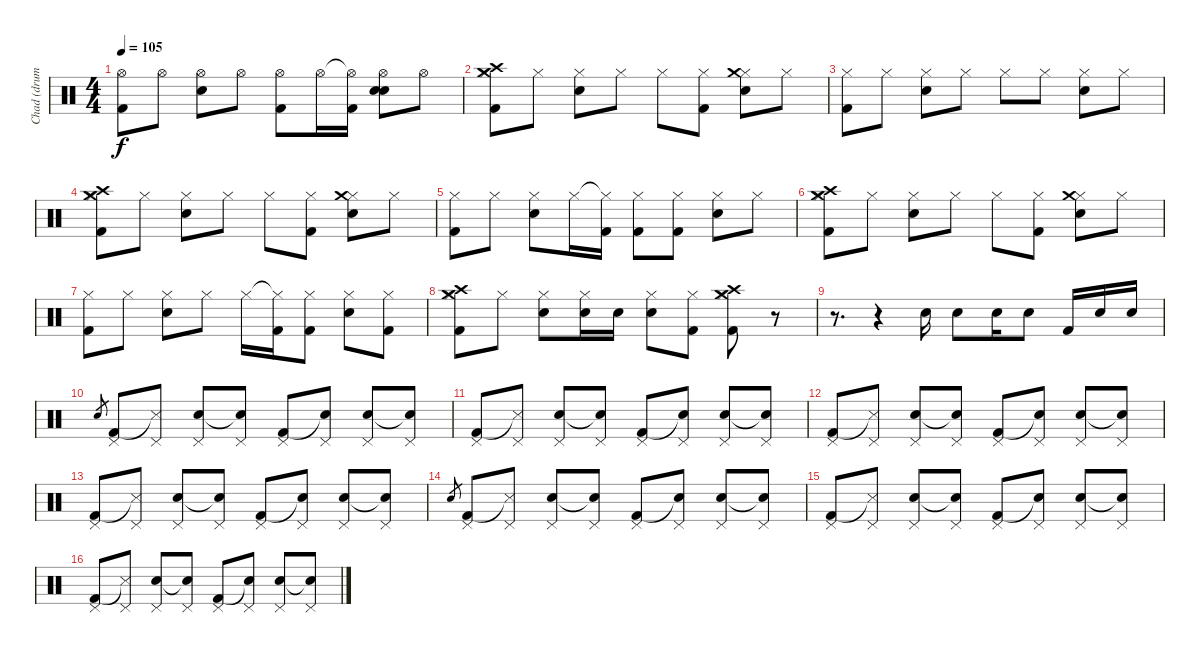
\track ("Chad (drums)" "Chad (drum") {instrument percussion}
\staff {score}
\articulation defaults
\ts (4 4)
\tempo 105
\clef neutral
\ks c
("Hi-Hat (open)" "Kick (hit) 2").8{dy f} "Hi-Hat (open)".8 ("Hi-Hat (open)" "Electric Snare (hit)").8 "Hi-Hat (open)".8 ("Hi-Hat (open)" "Kick (hit) 2").8 "Hi-Hat (open)".16 ("Hi-Hat (open)"{t} "Kick (hit) 2").16 ("Hi-Hat (open)" "Electric Snare (hit)" "Electric Snare (hit)").8{bd 60} "Hi-Hat (open)".8 |
("Hi-Hat (closed)" "Kick (hit) 2" "Crash high (hit)" "Crash medium (hit)").8 "Hi-Hat (closed)".8 ("Hi-Hat (closed)" "Electric Snare (hit)").8 "Hi-Hat (closed)".8 "Hi-Hat (closed)".8 ("Hi-Hat (closed)" "Kick (hit) 2").8 ("Hi-Hat (closed)" "Electric Snare (hit)" "Crash medium (hit)").8 "Hi-Hat (closed)".8 |
("Hi-Hat (closed)" "Kick (hit) 2").8 "Hi-Hat (closed)".8 ("Hi-Hat (closed)" "Electric Snare (hit)").8 "Hi-Hat (closed)".8 "Hi-Hat (closed)".8 "Hi-Hat (closed)".8 ("Hi-Hat (closed)" "Electric Snare (hit)").8 "Hi-Hat (closed)".8 |
("Hi-Hat (closed)" "Kick (hit) 2" "Crash high (hit)" "Crash medium (hit)").8 "Hi-Hat (closed)".8 ("Hi-Hat (closed)" "Electric Snare (hit)").8 "Hi-Hat (closed)".8 "Hi-Hat (closed)".8 ("Hi-Hat (closed)" "Kick (hit) 2").8 ("Hi-Hat (closed)" "Electric Snare (hit)" "Crash medium (hit)").8 "Hi-Hat (closed)".8 |
("Hi-Hat (closed)" "Kick (hit) 2").8 "Hi-Hat (closed)".8 ("Hi-Hat (closed)" "Electric Snare (hit)").8 "Hi-Hat (closed)".16 ("Hi-Hat (closed)"{t} "Kick (hit) 2").16 ("Hi-Hat (closed)" "Kick (hit) 2").8 ("Hi-Hat (closed)" "Kick (hit) 2").8 ("Hi-Hat (closed)" "Electric Snare (hit)").8 "Hi-Hat (closed)".8 |
("Hi-Hat (closed)" "Kick (hit) 2" "Crash high (hit)" "Crash medium (hit)").8 "Hi-Hat (closed)".8 ("Hi-Hat (closed)" "Electric Snare (hit)").8 "Hi-Hat (closed)".8 "Hi-Hat (closed)".8 ("Hi-Hat (closed)" "Kick (hit) 2").8 ("Hi-Hat (closed)" "Electric Snare (hit)" "Crash medium (hit)").8 "Hi-Hat (closed)".8 |
("Hi-Hat (closed)" "Kick (hit) 2").8 "Hi-Hat (closed)".8 ("Hi-Hat (closed)" "Electric Snare (hit)").8 "Hi-Hat (closed)".8 "Hi-Hat (closed)".16 ("Hi-Hat (closed)"{t} "Kick (hit) 2").16 ("Hi-Hat (closed)" "Kick (hit) 2").8 ("Hi-Hat (closed)" "Electric Snare (hit)").8 ("Hi-Hat (closed)" "Kick (hit) 2").8 |
("Hi-Hat (closed)" "Kick (hit) 2" "Crash high (hit)" "Crash medium (hit)").8 "Hi-Hat (closed)".8 ("Hi-Hat (closed)" "Electric Snare (hit)").8 ("Hi-Hat (closed)" "Electric Snare (hit)").16 "Electric Snare (hit)".16 ("Hi-Hat (closed)" "Electric Snare (hit)").8 ("Hi-Hat (closed)" "Kick (hit) 2").8 ("Hi-Hat (closed)" "Kick (hit) 2" "Crash medium (hit)" "Crash high (hit)").8 r.8 |
r.8{d} r.4 "Electric Snare (hit)".16 "Electric Snare (hit)".8 "Electric Snare (hit)".16 "Electric Snare (hit)".8 "Kick (hit) 2".16 "Electric Snare (hit)".16 "Electric Snare (hit)".16 |
"Electric Snare (hit)".8{gr} ("Pedal Hi-Hat (hit)" "Kick (hit) 2").8 ("Pedal Hi-Hat (hit)" "Snare (side stick) 3"{t}).8 ("Pedal Hi-Hat (hit)" "Electric Snare (hit)").8 ("Pedal Hi-Hat (hit)" "Snare (hit)"{t}).8 ("Pedal Hi-Hat (hit)" "Kick (hit) 2").8 ("Pedal Hi-Hat (hit)" "Snare (hit)"{t}).8 ("Pedal Hi-Hat (hit)" "Electric Snare (hit)").8 ("Pedal Hi-Hat (hit)" "Snare (hit)"{t}).8 |
("Pedal Hi-Hat (hit)" "Kick (hit) 2").8 ("Pedal Hi-Hat (hit)" "Snare (side stick) 3"{t}).8 ("Pedal Hi-Hat (hit)" "Electric Snare (hit)").8 ("Pedal Hi-Hat (hit)" "Snare (hit)"{t}).8 ("Pedal Hi-Hat (hit)" "Kick (hit) 2").8 ("Pedal Hi-Hat (hit)" "Snare (hit)"{t}).8 ("Pedal Hi-Hat (hit)" "Electric Snare (hit)").8 ("Pedal Hi-Hat (hit)" "Snare (hit)"{t}).8 |
("Pedal Hi-Hat (hit)" "Kick (hit) 2").8 ("Pedal Hi-Hat (hit)" "Snare (side stick) 3"{t}).8 ("Pedal Hi-Hat (hit)" "Electric Snare (hit)").8 ("Pedal Hi-Hat (hit)" "Snare (hit)"{t}).8 ("Pedal Hi-Hat (hit)" "Kick (hit) 2").8 ("Pedal Hi-Hat (hit)" "Snare (hit)"{t}).8 ("Pedal Hi-Hat (hit)" "Electric Snare (hit)").8 ("Pedal Hi-Hat (hit)" "Snare (hit)"{t}).8 |
("Pedal Hi-Hat (hit)" "Kick (hit) 2").8 ("Pedal Hi-Hat (hit)" "Snare (side stick) 3"{t}).8 ("Pedal Hi-Hat (hit)" "Electric Snare (hit)").8 ("Pedal Hi-Hat (hit)" "Snare (hit)"{t}).8 ("Pedal Hi-Hat (hit)" "Kick (hit) 2").8 ("Pedal Hi-Hat (hit)" "Snare (hit)"{t}).8 ("Pedal Hi-Hat (hit)" "Electric Snare (hit)").8 ("Pedal Hi-Hat (hit)" "Snare (hit)"{t}).8 |
"Electric Snare (hit)".8{gr} ("Pedal Hi-Hat (hit)" "Kick (hit) 2").8 ("Pedal Hi-Hat (hit)" "Snare (side stick) 3"{t}).8 ("Pedal Hi-Hat (hit)" "Electric Snare (hit)").8 ("Pedal Hi-Hat (hit)" "Snare (hit)"{t}).8 ("Pedal Hi-Hat (hit)" "Kick (hit) 2").8 ("Pedal Hi-Hat (hit)" "Snare (hit)"{t}).8 ("Pedal Hi-Hat (hit)" "Electric Snare (hit)").8 ("Pedal Hi-Hat (hit)" "Snare (hit)"{t}).8 |
("Pedal Hi-Hat (hit)" "Kick (hit) 2").8 ("Pedal Hi-Hat (hit)" "Snare (side stick) 3"{t}).8 ("Pedal Hi-Hat (hit)" "Electric Snare (hit)").8 ("Pedal Hi-Hat (hit)" "Snare (hit)"{t}).8 ("Pedal Hi-Hat (hit)" "Kick (hit) 2").8 ("Pedal Hi-Hat (hit)" "Snare (hit)"{t}).8 ("Pedal Hi-Hat (hit)" "Electric Snare (hit)").8 ("Pedal Hi-Hat (hit)" "Snare (hit)"{t}).8 |
("Pedal Hi-Hat (hit)" "Kick (hit) 2").8 ("Pedal Hi-Hat (hit)" "Snare (side stick) 3"{t}).8 ("Pedal Hi-Hat (hit)" "Electric Snare (hit)").8 ("Pedal Hi-Hat (hit)" "Snare (hit)"{t}).8 ("Pedal Hi-Hat (hit)" "Kick (hit) 2").8 ("Pedal Hi-Hat (hit)" "Snare (hit)"{t}).8 ("Pedal Hi-Hat (hit)" "Electric Snare (hit)").8 ("Pedal Hi-Hat (hit)" "Snare (hit)"{t}).8
